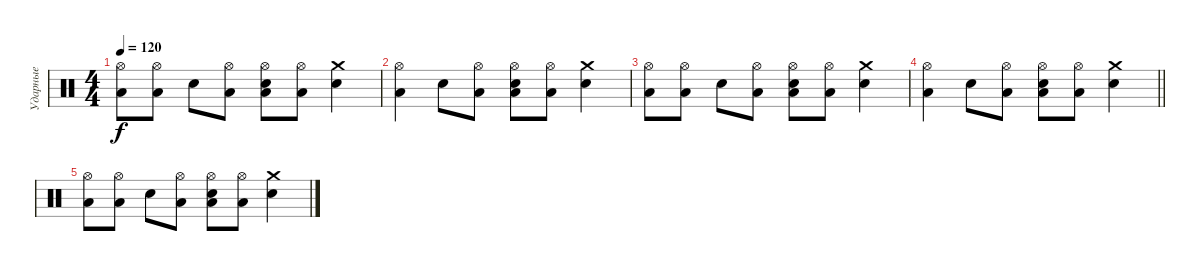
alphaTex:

\track ("Ударные" "Ударные") {instrument percussion}
\staff {score}
\articulation defaults
\ts (4 4)
\tempo 120
\clef neutral
\ks c
("Low Floor Tom (hit)" "Hi-Hat (open)").8{dy f} ("Low Floor Tom (hit)" "Hi-Hat (open)").8 "Snare (hit) 2".8 ("Low Floor Tom (hit)" "Hi-Hat (open)").8 ("Low Floor Tom (hit)" "Snare (hit) 2" "Hi-Hat (open)").8 ("Low Floor Tom (hit)" "Hi-Hat (open)").8 ("Snare (hit) 2" "Crash medium (hit)").4 |
("Low Floor Tom (hit)" "Hi-Hat (open)").4 "Snare (hit) 2".8 ("Low Floor Tom (hit)" "Hi-Hat (open)").8 ("Low Floor Tom (hit)" "Snare (hit) 2" "Hi-Hat (open)").8 ("Low Floor Tom (hit)" "Hi-Hat (open)").8 ("Snare (hit) 2" "Crash medium (hit)").4 |
("Low Floor Tom (hit)" "Hi-Hat (open)").8 ("Low Floor Tom (hit)" "Hi-Hat (open)").8 "Snare (hit) 2".8 ("Low Floor Tom (hit)" "Hi-Hat (open)").8 ("Low Floor Tom (hit)" "Snare (hit) 2" "Hi-Hat (open)").8 ("Low Floor Tom (hit)" "Hi-Hat (open)").8 ("Snare (hit) 2" "Crash medium (hit)").4 |
\barLineRight lightlight
("Low Floor Tom (hit)" "Hi-Hat (open)").4 "Snare (hit) 2".8 ("Low Floor Tom (hit)" "Hi-Hat (open)").8 ("Low Floor Tom (hit)" "Snare (hit) 2" "Hi-Hat (open)").8 ("Low Floor Tom (hit)" "Hi-Hat (open)").8 ("Snare (hit) 2" "Crash medium (hit)").4 |
\section ("" "")
("Low Floor Tom (hit)" "Hi-Hat (open)").8 ("Low Floor Tom (hit)" "Hi-Hat (open)").8 "Snare (hit) 2".8 ("Low Floor Tom (hit)" "Hi-Hat (open)").8 ("Low Floor Tom (hit)" "Snare (hit) 2" "Hi-Hat (open)").8 ("Low Floor Tom (hit)" "Hi-Hat (open)").8 ("Snare (hit) 2" "Crash medium (hit)").4
